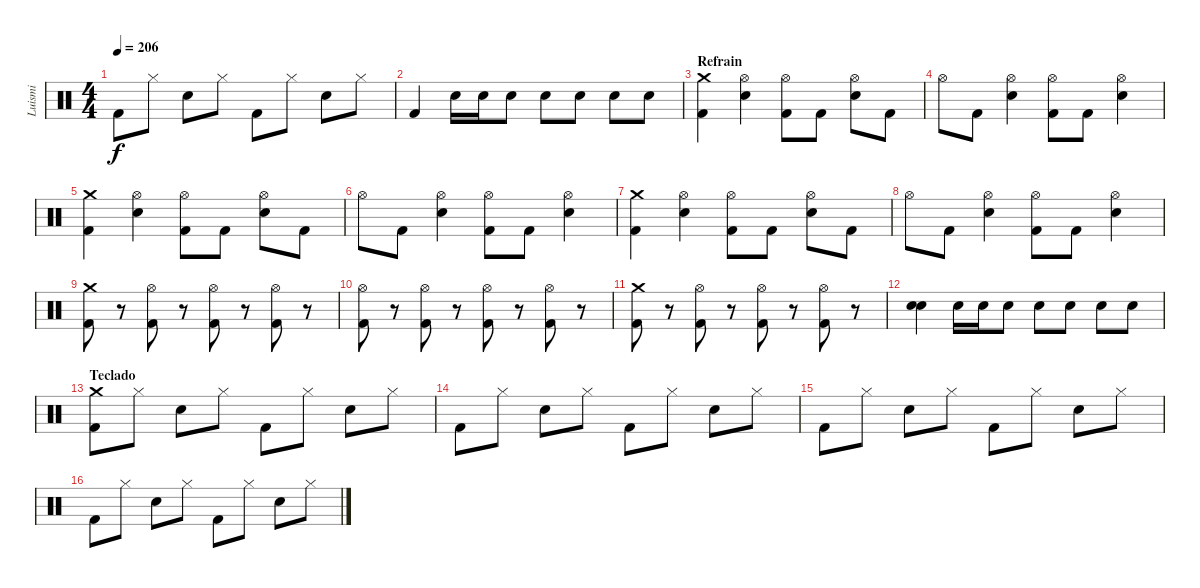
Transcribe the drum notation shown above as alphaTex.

\track ("Luismi" "Luismi") {instrument percussion}
\staff {score}
\articulation defaults
\ts (4 4)
\tempo 206
\clef neutral
\ks c "Kick (hit) 2".8{dy f} "Hi-Hat (closed)".8 "Snare (hit) 2".8 "Hi-Hat (closed)".8 "Kick (hit) 2".8 "Hi-Hat (closed)".8 "Snare (hit) 2".8 "Hi-Hat (closed)".8
|
"Kick (hit) 2".4 "Snare (hit) 2".16 "Snare (hit) 2".16 "Snare (hit) 2".8 "Snare (hit) 2".8 "Snare (hit) 2".8 "Snare (hit) 2".8 "Snare (hit) 2".8 |
\section ("" "Refrain")
("Crash medium (hit)" "Kick (hit) 2").4 ("Hi-Hat (open)" "Snare (hit) 2").4 ("Hi-Hat (open)" "Kick (hit) 2").8 "Kick (hit) 2".8 ("Hi-Hat (open)" "Snare (hit) 2").8 "Kick (hit) 2".8 |
"Hi-Hat (open)".8 "Kick (hit) 2".8 ("Hi-Hat (open)" "Snare (hit) 2").4 ("Hi-Hat (open)" "Kick (hit) 2").8 "Kick (hit) 2".8 ("Hi-Hat (open)" "Snare (hit) 2").4 |
("Crash medium (hit)" "Kick (hit) 2").4 ("Hi-Hat (open)" "Snare (hit) 2").4 ("Hi-Hat (open)" "Kick (hit) 2").8 "Kick (hit) 2".8 ("Hi-Hat (open)" "Snare (hit) 2").8 "Kick (hit) 2".8 |
"Hi-Hat (open)".8 "Kick (hit) 2".8 ("Hi-Hat (open)" "Snare (hit) 2").4 ("Hi-Hat (open)" "Kick (hit) 2").8 "Kick (hit) 2".8 ("Hi-Hat (open)" "Snare (hit) 2").4 |
("Crash medium (hit)" "Kick (hit) 2").4 ("Hi-Hat (open)" "Snare (hit) 2").4 ("Hi-Hat (open)" "Kick (hit) 2").8 "Kick (hit) 2".8 ("Hi-Hat (open)" "Snare (hit) 2").8 "Kick (hit) 2".8 |
"Hi-Hat (open)".8 "Kick (hit) 2".8 ("Hi-Hat (open)" "Snare (hit) 2").4 ("Hi-Hat (open)" "Kick (hit) 2").8 "Kick (hit) 2".8 ("Hi-Hat (open)" "Snare (hit) 2").4 |
("Crash medium (hit)" "Kick (hit) 2").8 r.8 ("Hi-Hat (open)" "Kick (hit) 2").8 r.8 ("Hi-Hat (open)" "Kick (hit) 2").8 r.8 ("Hi-Hat (open)" "Kick (hit) 2").8 r.8 |
("Hi-Hat (open)" "Kick (hit) 2").8 r.8 ("Hi-Hat (open)" "Kick (hit) 2").8 r.8 ("Hi-Hat (open)" "Kick (hit) 2").8 r.8 ("Hi-Hat (open)" "Kick (hit) 2").8 r.8 |
("Crash medium (hit)" "Kick (hit) 2").8 r.8 ("Hi-Hat (open)" "Kick (hit) 2").8 r.8 ("Hi-Hat (open)" "Kick (hit) 2").8 r.8 ("Hi-Hat (open)" "Kick (hit) 2").8 r.8 |
("Snare (hit) 2" "Snare (hit) 2").4 "Snare (hit) 2".16 "Snare (hit) 2".16 "Snare (hit) 2".8 "Snare (hit) 2".8 "Snare (hit) 2".8 "Snare (hit) 2".8 "Snare (hit) 2".8 |
\section ("" "Teclado")
("Crash medium (hit)" "Kick (hit) 2").8 "Hi-Hat (closed)".8 "Snare (hit) 2".8 "Hi-Hat (closed)".8 "Kick (hit) 2".8 "Hi-Hat (closed)".8 "Snare (hit) 2".8 "Hi-Hat (closed)".8 |
"Kick (hit) 2".8 "Hi-Hat (closed)".8 "Snare (hit) 2".8 "Hi-Hat (closed)".8 "Kick (hit) 2".8 "Hi-Hat (closed)".8 "Snare (hit) 2".8 "Hi-Hat (closed)".8 |
"Kick (hit) 2".8 "Hi-Hat (closed)".8 "Snare (hit) 2".8 "Hi-Hat (closed)".8 "Kick (hit) 2".8 "Hi-Hat (closed)".8 "Snare (hit) 2".8 "Hi-Hat (closed)".8 |
"Kick (hit) 2".8 "Hi-Hat (closed)".8 "Snare (hit) 2".8 "Hi-Hat (closed)".8 "Kick (hit) 2".8 "Hi-Hat (closed)".8 "Snare (hit) 2".8 "Hi-Hat (closed)".8
